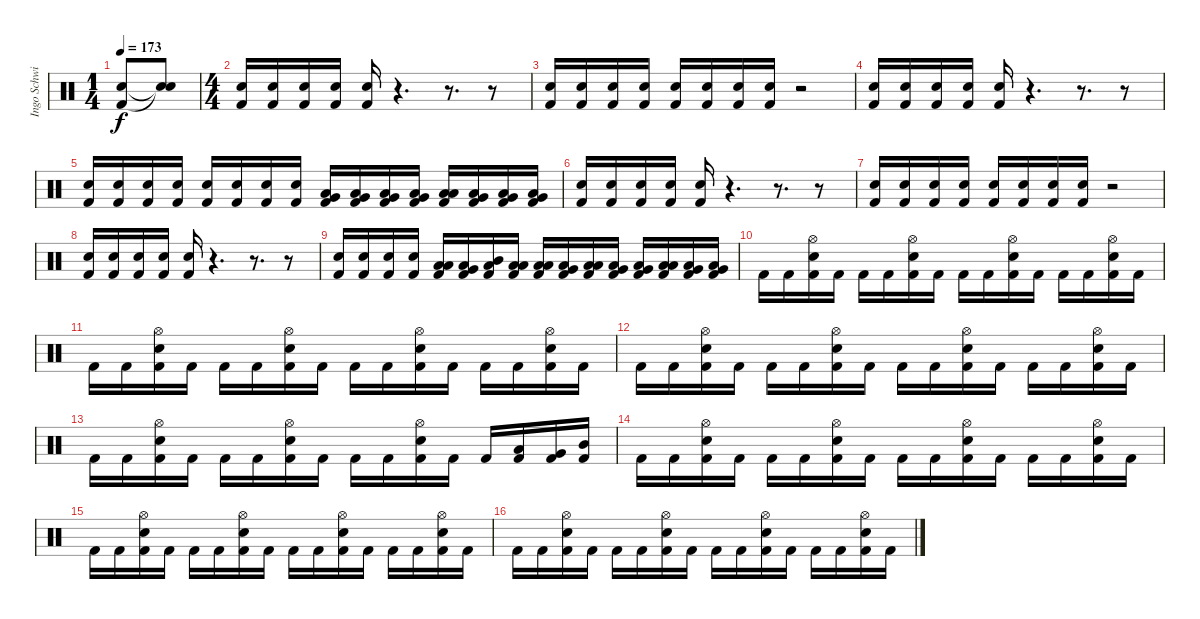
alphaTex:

\track ("Ingo Schwichtenberg" "Ingo Schwi") {instrument percussion}
\staff {score}
\articulation defaults
\ts (1 4)
\tempo 173
\clef neutral
\ks c
("Kick (hit) 2" "Snare (hit) 2").8{dy f} ("Snare (hit)"{t} "Snare (hit)"{t}).8 |
\ts (4 4)
("Kick (hit) 2" "Snare (hit) 2").16 ("Kick (hit) 2" "Snare (hit) 2").16 ("Kick (hit) 2" "Snare (hit) 2").16 ("Kick (hit) 2" "Snare (hit) 2").16 ("Kick (hit) 2" "Snare (hit) 2").16 r.4{d} r.8{d} r.8 |
("Kick (hit) 2" "Snare (hit) 2").16 ("Kick (hit) 2" "Snare (hit) 2").16 ("Kick (hit) 2" "Snare (hit) 2").16 ("Kick (hit) 2" "Snare (hit) 2").16 ("Kick (hit) 2" "Snare (hit) 2").16 ("Kick (hit) 2" "Snare (hit) 2").16 ("Kick (hit) 2" "Snare (hit) 2").16 ("Kick (hit) 2" "Snare (hit) 2").16 r.2 |
("Kick (hit) 2" "Snare (hit) 2").16 ("Kick (hit) 2" "Snare (hit) 2").16 ("Kick (hit) 2" "Snare (hit) 2").16 ("Kick (hit) 2" "Snare (hit) 2").16 ("Kick (hit) 2" "Snare (hit) 2").16 r.4{d} r.8{d} r.8 |
("Kick (hit) 2" "Snare (hit) 2").16 ("Kick (hit) 2" "Snare (hit) 2").16 ("Kick (hit) 2" "Snare (hit) 2").16 ("Kick (hit) 2" "Snare (hit) 2").16 ("Kick (hit) 2" "Snare (hit) 2").16 ("Kick (hit) 2" "Snare (hit) 2").16 ("Kick (hit) 2" "Snare (hit) 2").16 ("Kick (hit) 2" "Snare (hit) 2").16 ("Kick (hit) 2" "Low Tom (hit)" "Very Low Tom (hit)").16 ("Kick (hit) 2" "Very Low Tom (hit)" "Low Floor Tom (hit)").16 ("Kick (hit) 2" "Low Tom (hit)" "Very Low Tom (hit)").16 ("Kick (hit) 2" "Very Low Tom (hit)" "Low Floor Tom (hit)").16 ("Kick (hit) 2" "Low Floor Tom (hit)" "Low Tom (hit)").16 ("Kick (hit) 2" "Low Tom (hit)" "Very Low Tom (hit)").16 ("Kick (hit) 2" "Very Low Tom (hit)" "Low Floor Tom (hit)").16 ("Kick (hit) 2" "Very Low Tom (hit)" "Low Floor Tom (hit)").16 |
("Kick (hit) 2" "Snare (hit) 2").16 ("Kick (hit) 2" "Snare (hit) 2").16 ("Kick (hit) 2" "Snare (hit) 2").16 ("Kick (hit) 2" "Snare (hit) 2").16 ("Kick (hit) 2" "Snare (hit) 2").16 r.4{d} r.8{d} r.8 |
("Kick (hit) 2" "Snare (hit) 2").16 ("Kick (hit) 2" "Snare (hit) 2").16 ("Kick (hit) 2" "Snare (hit) 2").16 ("Kick (hit) 2" "Snare (hit) 2").16 ("Kick (hit) 2" "Snare (hit) 2").16 ("Kick (hit) 2" "Snare (hit) 2").16 ("Kick (hit) 2" "Snare (hit) 2").16 ("Kick (hit) 2" "Snare (hit) 2").16 r.2 |
("Kick (hit) 2" "Snare (hit) 2").16 ("Kick (hit) 2" "Snare (hit) 2").16 ("Kick (hit) 2" "Snare (hit) 2").16 ("Kick (hit) 2" "Snare (hit) 2").16 ("Kick (hit) 2" "Snare (hit) 2").16 r.4{d} r.8{d} r.8 |
("Kick (hit) 2" "Snare (hit) 2").16 ("Kick (hit) 2" "Snare (hit) 2").16 ("Kick (hit) 2" "Snare (hit) 2").16 ("Kick (hit) 2" "Snare (hit) 2").16 ("Kick (hit) 2" "Low Tom (hit)" "Low Floor Tom (hit)").16 ("Kick (hit) 2" "Very Low Tom (hit)" "Low Floor Tom (hit)").16 ("Kick (hit) 2" "Mid Tom (hit)" "Low Floor Tom (hit)").16 ("Kick (hit) 2" "Low Tom (hit)" "Low Floor Tom (hit)").16 ("Kick (hit) 2" "Low Tom (hit)" "Low Floor Tom (hit)").16 ("Kick (hit) 2" "Very Low Tom (hit)" "Low Floor Tom (hit)").16 ("Kick (hit) 2" "Low Tom (hit)" "Low Floor Tom (hit)").16 ("Kick (hit) 2" "Very Low Tom (hit)" "Low Floor Tom (hit)").16 ("Kick (hit) 2" "Low Floor Tom (hit)" "Very Low Tom (hit)").16 ("Kick (hit) 2" "Low Tom (hit)" "Low Floor Tom (hit)").16 ("Kick (hit) 2" "Very Low Tom (hit)" "Low Floor Tom (hit)").16 ("Kick (hit) 2" "Very Low Tom (hit)" "Low Tom (hit)").16 |
"Kick (hit) 2".16 "Kick (hit) 2".16 ("Kick (hit) 2" "Snare (hit) 2" "Hi-Hat (open)").16 "Kick (hit) 2".16 "Kick (hit) 2".16 "Kick (hit) 2".16 ("Kick (hit) 2" "Snare (hit) 2" "Hi-Hat (open)").16 "Kick (hit) 2".16 "Kick (hit) 2".16 "Kick (hit) 2".16 ("Kick (hit) 2" "Snare (hit) 2" "Hi-Hat (open)").16 "Kick (hit) 2".16 "Kick (hit) 2".16 "Kick (hit) 2".16 ("Kick (hit) 2" "Snare (hit) 2" "Hi-Hat (open)").16 "Kick (hit) 2".16 |
"Kick (hit) 2".16 "Kick (hit) 2".16 ("Kick (hit) 2" "Snare (hit) 2" "Hi-Hat (open)").16 "Kick (hit) 2".16 "Kick (hit) 2".16 "Kick (hit) 2".16 ("Kick (hit) 2" "Snare (hit) 2" "Hi-Hat (open)").16 "Kick (hit) 2".16 "Kick (hit) 2".16 "Kick (hit) 2".16 ("Kick (hit) 2" "Snare (hit) 2" "Hi-Hat (open)").16 "Kick (hit) 2".16 "Kick (hit) 2".16 "Kick (hit) 2".16 ("Kick (hit) 2" "Snare (hit) 2" "Hi-Hat (open)").16 "Kick (hit) 2".16 |
"Kick (hit) 2".16 "Kick (hit) 2".16 ("Kick (hit) 2" "Snare (hit) 2" "Hi-Hat (open)").16 "Kick (hit) 2".16 "Kick (hit) 2".16 "Kick (hit) 2".16 ("Kick (hit) 2" "Snare (hit) 2" "Hi-Hat (open)").16 "Kick (hit) 2".16 "Kick (hit) 2".16 "Kick (hit) 2".16 ("Kick (hit) 2" "Snare (hit) 2" "Hi-Hat (open)").16 "Kick (hit) 2".16 "Kick (hit) 2".16 "Kick (hit) 2".16 ("Kick (hit) 2" "Snare (hit) 2" "Hi-Hat (open)").16 "Kick (hit) 2".16 |
"Kick (hit) 2".16 "Kick (hit) 2".16 ("Kick (hit) 2" "Snare (hit) 2" "Hi-Hat (open)").16 "Kick (hit) 2".16 "Kick (hit) 2".16 "Kick (hit) 2".16 ("Kick (hit) 2" "Snare (hit) 2" "Hi-Hat (open)").16 "Kick (hit) 2".16 "Kick (hit) 2".16 "Kick (hit) 2".16 ("Kick (hit) 2" "Snare (hit) 2" "Hi-Hat (open)").16 "Kick (hit) 2".16 "Kick (hit) 2".16 ("Kick (hit) 2" "Low Tom (hit)").16 ("Kick (hit) 2" "Very Low Tom (hit)").16 ("Kick (hit) 2" "Mid Tom (hit)").16 |
"Kick (hit) 2".16 "Kick (hit) 2".16 ("Kick (hit) 2" "Snare (hit) 2" "Hi-Hat (open)").16 "Kick (hit) 2".16 "Kick (hit) 2".16 "Kick (hit) 2".16 ("Kick (hit) 2" "Snare (hit) 2" "Hi-Hat (open)").16 "Kick (hit) 2".16 "Kick (hit) 2".16 "Kick (hit) 2".16 ("Kick (hit) 2" "Snare (hit) 2" "Hi-Hat (open)").16 "Kick (hit) 2".16 "Kick (hit) 2".16 "Kick (hit) 2".16 ("Kick (hit) 2" "Snare (hit) 2" "Hi-Hat (open)").16 "Kick (hit) 2".16 |
"Kick (hit) 2".16 "Kick (hit) 2".16 ("Kick (hit) 2" "Snare (hit) 2" "Hi-Hat (open)").16 "Kick (hit) 2".16 "Kick (hit) 2".16 "Kick (hit) 2".16 ("Kick (hit) 2" "Snare (hit) 2" "Hi-Hat (open)").16 "Kick (hit) 2".16 "Kick (hit) 2".16 "Kick (hit) 2".16 ("Kick (hit) 2" "Snare (hit) 2" "Hi-Hat (open)").16 "Kick (hit) 2".16 "Kick (hit) 2".16 "Kick (hit) 2".16 ("Kick (hit) 2" "Snare (hit) 2" "Hi-Hat (open)").16 "Kick (hit) 2".16 |
"Kick (hit) 2".16 "Kick (hit) 2".16 ("Kick (hit) 2" "Snare (hit) 2" "Hi-Hat (open)").16 "Kick (hit) 2".16 "Kick (hit) 2".16 "Kick (hit) 2".16 ("Kick (hit) 2" "Snare (hit) 2" "Hi-Hat (open)").16 "Kick (hit) 2".16 "Kick (hit) 2".16 "Kick (hit) 2".16 ("Kick (hit) 2" "Snare (hit) 2" "Hi-Hat (open)").16 "Kick (hit) 2".16 "Kick (hit) 2".16 "Kick (hit) 2".16 ("Kick (hit) 2" "Snare (hit) 2" "Hi-Hat (open)").16 "Kick (hit) 2".16
